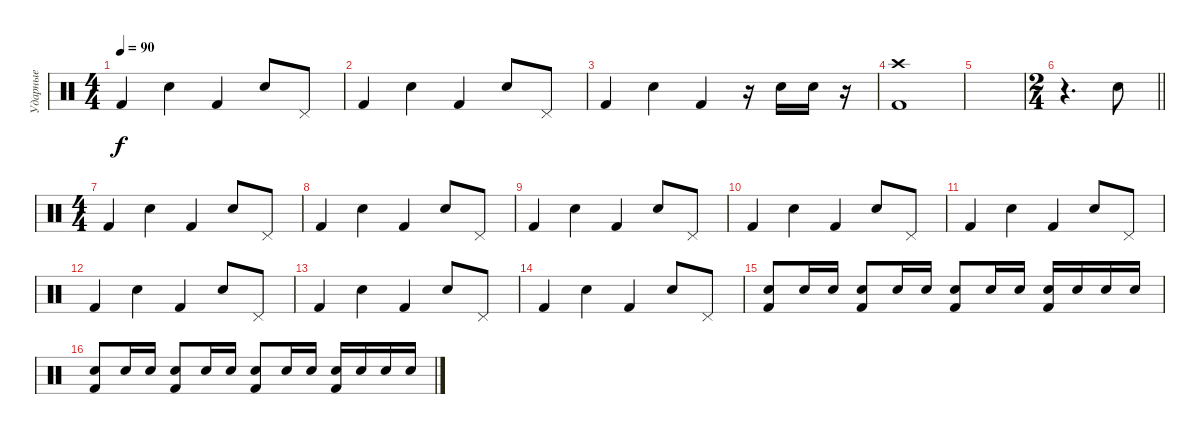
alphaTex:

\track ("Ударные" "Ударные") {instrument percussion}
\staff {score}
\articulation defaults
\ts (4 4)
\tempo 90
\clef neutral
\ks c "Kick (hit) 2".4{dy f} "Electric Snare (hit)".4 "Kick (hit) 2".4 "Electric Snare (hit)".8 "Pedal Hi-Hat (hit)".8
|
"Kick (hit) 2".4 "Electric Snare (hit)".4 "Kick (hit) 2".4 "Electric Snare (hit)".8 "Pedal Hi-Hat (hit)".8 |
"Kick (hit) 2".4 "Electric Snare (hit)".4 "Kick (hit) 2".4 r.16 "Electric Snare (hit)".16 "Electric Snare (hit)".16 r.16 |
("Crash high (hit)" "Kick (hit) 2").1 |
|
\ts (2 4)
\barLineRight lightlight
r.4{d} "Electric Snare (hit)".8 |
\ts (4 4)
"Kick (hit) 2".4 "Electric Snare (hit)".4 "Kick (hit) 2".4 "Electric Snare (hit)".8 "Pedal Hi-Hat (hit)".8 |
"Kick (hit) 2".4 "Electric Snare (hit)".4 "Kick (hit) 2".4 "Electric Snare (hit)".8 "Pedal Hi-Hat (hit)".8 |
"Kick (hit) 2".4 "Electric Snare (hit)".4 "Kick (hit) 2".4 "Electric Snare (hit)".8 "Pedal Hi-Hat (hit)".8 |
"Kick (hit) 2".4 "Electric Snare (hit)".4 "Kick (hit) 2".4 "Electric Snare (hit)".8 "Pedal Hi-Hat (hit)".8 |
"Kick (hit) 2".4 "Electric Snare (hit)".4 "Kick (hit) 2".4 "Electric Snare (hit)".8 "Pedal Hi-Hat (hit)".8 |
"Kick (hit) 2".4 "Electric Snare (hit)".4 "Kick (hit) 2".4 "Electric Snare (hit)".8 "Pedal Hi-Hat (hit)".8 |
"Kick (hit) 2".4 "Electric Snare (hit)".4 "Kick (hit) 2".4 "Electric Snare (hit)".8 "Pedal Hi-Hat (hit)".8 |
"Kick (hit) 2".4 "Electric Snare (hit)".4 "Kick (hit) 2".4 "Electric Snare (hit)".8 "Pedal Hi-Hat (hit)".8 |
("Electric Snare (hit)" "Kick (hit) 2").8 "Electric Snare (hit)".16 "Electric Snare (hit)".16 ("Electric Snare (hit)" "Kick (hit) 2").8 "Electric Snare (hit)".16 "Electric Snare (hit)".16 ("Electric Snare (hit)" "Kick (hit) 2").8 "Electric Snare (hit)".16 "Electric Snare (hit)".16 ("Electric Snare (hit)" "Kick (hit) 2").16 "Electric Snare (hit)".16 "Electric Snare (hit)".16 "Electric Snare (hit)".16 |
("Electric Snare (hit)" "Kick (hit) 2").8 "Electric Snare (hit)".16 "Electric Snare (hit)".16 ("Electric Snare (hit)" "Kick (hit) 2").8 "Electric Snare (hit)".16 "Electric Snare (hit)".16 ("Electric Snare (hit)" "Kick (hit) 2").8 "Electric Snare (hit)".16 "Electric Snare (hit)".16 ("Electric Snare (hit)" "Kick (hit) 2").16 "Electric Snare (hit)".16 "Electric Snare (hit)".16 "Electric Snare (hit)".16
